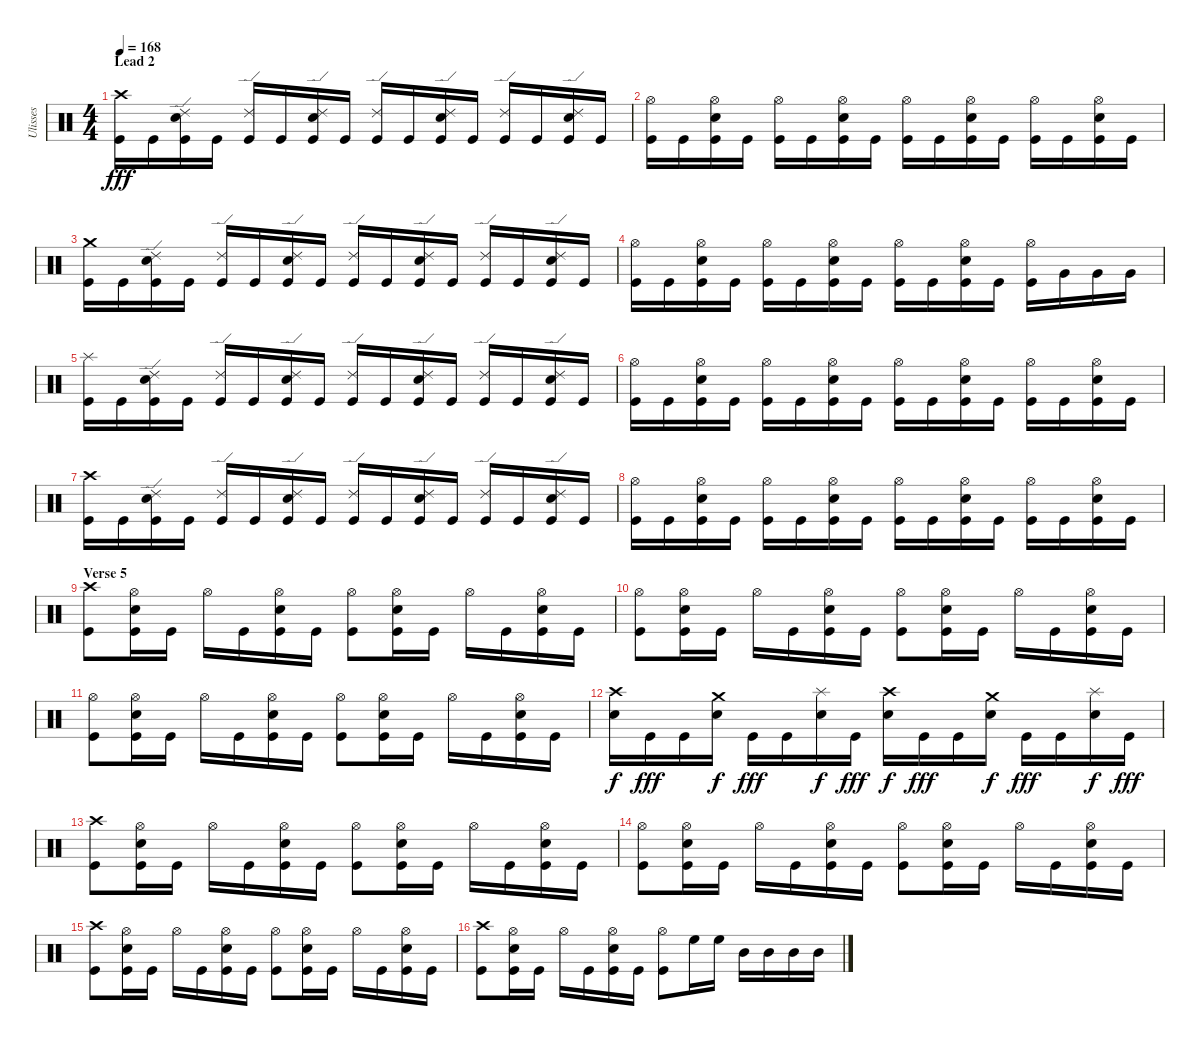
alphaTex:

\track ("Ulisses" "Ulisses") {instrument percussion}
\staff {score}
\articulation defaults
\ts (4 4)
\section ("" "Lead 2")
\tempo 168
\clef neutral
\ks c
("Crash high (hit)" "Kick (hit)").16{dy fff} "Kick (hit)".16 ("Ride (edge) 2" "Snare (hit) 2" "Kick (hit)").16 "Kick (hit)".16 ("Ride (edge) 2" "Kick (hit)").16 "Kick (hit)".16 ("Ride (edge) 2" "Snare (hit) 2" "Kick (hit)").16 "Kick (hit)".16 ("Ride (edge) 2" "Kick (hit)").16 "Kick (hit)".16 ("Ride (edge) 2" "Snare (hit) 2" "Kick (hit)").16 "Kick (hit)".16 ("Ride (edge) 2" "Kick (hit)").16 "Kick (hit)".16 ("Ride (edge) 2" "Snare (hit) 2" "Kick (hit)").16 "Kick (hit)".16 |
("Hi-Hat (open)" "Kick (hit)").16 "Kick (hit)".16 ("Hi-Hat (open)" "Snare (hit) 2" "Kick (hit)").16 "Kick (hit)".16 ("Hi-Hat (open)" "Kick (hit)").16 "Kick (hit)".16 ("Hi-Hat (open)" "Snare (hit) 2" "Kick (hit)").16 "Kick (hit)".16 ("Hi-Hat (open)" "Kick (hit)").16 "Kick (hit)".16 ("Hi-Hat (open)" "Snare (hit) 2" "Kick (hit)").16 "Kick (hit)".16 ("Hi-Hat (open)" "Kick (hit)").16 "Kick (hit)".16 ("Hi-Hat (open)" "Snare (hit) 2" "Kick (hit)").16 "Kick (hit)".16 |
("Crash medium (hit)" "Kick (hit)").16 "Kick (hit)".16 ("Ride (edge) 2" "Snare (hit) 2" "Kick (hit)").16 "Kick (hit)".16 ("Ride (edge) 2" "Kick (hit)").16 "Kick (hit)".16 ("Ride (edge) 2" "Snare (hit) 2" "Kick (hit)").16 "Kick (hit)".16 ("Ride (edge) 2" "Kick (hit)").16 "Kick (hit)".16 ("Ride (edge) 2" "Snare (hit) 2" "Kick (hit)").16 "Kick (hit)".16 ("Ride (edge) 2" "Kick (hit)").16 "Kick (hit)".16 ("Ride (edge) 2" "Snare (hit) 2" "Kick (hit)").16 "Kick (hit)".16 |
("Hi-Hat (open)" "Kick (hit)").16 "Kick (hit)".16 ("Hi-Hat (open)" "Snare (hit) 2" "Kick (hit)").16 "Kick (hit)".16 ("Hi-Hat (open)" "Kick (hit)").16 "Kick (hit)".16 ("Hi-Hat (open)" "Snare (hit) 2" "Kick (hit)").16 "Kick (hit)".16 ("Hi-Hat (open)" "Kick (hit)").16 "Kick (hit)".16 ("Hi-Hat (open)" "Snare (hit) 2" "Kick (hit)").16 "Kick (hit)".16 ("Hi-Hat (open)" "Kick (hit)").16 "Very Low Tom (hit)".16 "Very Low Tom (hit)".16 "Very Low Tom (hit)".16 |
("Splash (hit)" "Kick (hit)").16 "Kick (hit)".16 ("Ride (edge) 2" "Snare (hit) 2" "Kick (hit)").16 "Kick (hit)".16 ("Ride (edge) 2" "Kick (hit)").16 "Kick (hit)".16 ("Ride (edge) 2" "Snare (hit) 2" "Kick (hit)").16 "Kick (hit)".16 ("Ride (edge) 2" "Kick (hit)").16 "Kick (hit)".16 ("Ride (edge) 2" "Snare (hit) 2" "Kick (hit)").16 "Kick (hit)".16 ("Ride (edge) 2" "Kick (hit)").16 "Kick (hit)".16 ("Ride (edge) 2" "Snare (hit) 2" "Kick (hit)").16 "Kick (hit)".16 |
("Hi-Hat (open)" "Kick (hit)").16 "Kick (hit)".16 ("Hi-Hat (open)" "Snare (hit) 2" "Kick (hit)").16 "Kick (hit)".16 ("Hi-Hat (open)" "Kick (hit)").16 "Kick (hit)".16 ("Hi-Hat (open)" "Snare (hit) 2" "Kick (hit)").16 "Kick (hit)".16 ("Hi-Hat (open)" "Kick (hit)").16 "Kick (hit)".16 ("Hi-Hat (open)" "Snare (hit) 2" "Kick (hit)").16 "Kick (hit)".16 ("Hi-Hat (open)" "Kick (hit)").16 "Kick (hit)".16 ("Hi-Hat (open)" "Snare (hit) 2" "Kick (hit)").16 "Kick (hit)".16 |
("Crash high (hit)" "Kick (hit)").16 "Kick (hit)".16 ("Ride (edge) 2" "Snare (hit) 2" "Kick (hit)").16 "Kick (hit)".16 ("Ride (edge) 2" "Kick (hit)").16 "Kick (hit)".16 ("Ride (edge) 2" "Snare (hit) 2" "Kick (hit)").16 "Kick (hit)".16 ("Ride (edge) 2" "Kick (hit)").16 "Kick (hit)".16 ("Ride (edge) 2" "Snare (hit) 2" "Kick (hit)").16 "Kick (hit)".16 ("Ride (edge) 2" "Kick (hit)").16 "Kick (hit)".16 ("Ride (edge) 2" "Snare (hit) 2" "Kick (hit)").16 "Kick (hit)".16 |
("Hi-Hat (open)" "Kick (hit)").16 "Kick (hit)".16 ("Hi-Hat (open)" "Snare (hit) 2" "Kick (hit)").16 "Kick (hit)".16 ("Hi-Hat (open)" "Kick (hit)").16 "Kick (hit)".16 ("Hi-Hat (open)" "Snare (hit) 2" "Kick (hit)").16 "Kick (hit)".16 ("Hi-Hat (open)" "Kick (hit)").16 "Kick (hit)".16 ("Hi-Hat (open)" "Snare (hit) 2" "Kick (hit)").16 "Kick (hit)".16 ("Hi-Hat (open)" "Kick (hit)").16 "Kick (hit)".16 ("Hi-Hat (open)" "Snare (hit) 2" "Kick (hit)").16 "Kick (hit)".16 |
\section ("" "Verse 5")
("Crash high (hit)" "Kick (hit)").8 ("Hi-Hat (open)" "Snare (hit) 2" "Kick (hit)").16 "Kick (hit)".16 "Hi-Hat (open)".16 "Kick (hit)".16 ("Hi-Hat (open)" "Snare (hit) 2" "Kick (hit)").16 "Kick (hit)".16 ("Hi-Hat (open)" "Kick (hit)").8 ("Hi-Hat (open)" "Snare (hit) 2" "Kick (hit)").16 "Kick (hit)".16 "Hi-Hat (open)".16 "Kick (hit)".16 ("Hi-Hat (open)" "Snare (hit) 2" "Kick (hit)").16 "Kick (hit)".16 |
("Hi-Hat (open)" "Kick (hit)").8 ("Hi-Hat (open)" "Snare (hit) 2" "Kick (hit)").16 "Kick (hit)".16 "Hi-Hat (open)".16 "Kick (hit)".16 ("Hi-Hat (open)" "Snare (hit) 2" "Kick (hit)").16 "Kick (hit)".16 ("Hi-Hat (open)" "Kick (hit)").8 ("Hi-Hat (open)" "Snare (hit) 2" "Kick (hit)").16 "Kick (hit)".16 "Hi-Hat (open)".16 "Kick (hit)".16 ("Hi-Hat (open)" "Snare (hit) 2" "Kick (hit)").16 "Kick (hit)".16 |
("Hi-Hat (open)" "Kick (hit)").8 ("Hi-Hat (open)" "Snare (hit) 2" "Kick (hit)").16 "Kick (hit)".16 "Hi-Hat (open)".16 "Kick (hit)".16 ("Hi-Hat (open)" "Snare (hit) 2" "Kick (hit)").16 "Kick (hit)".16 ("Hi-Hat (open)" "Kick (hit)").8 ("Hi-Hat (open)" "Snare (hit) 2" "Kick (hit)").16 "Kick (hit)".16 "Hi-Hat (open)".16 "Kick (hit)".16 ("Hi-Hat (open)" "Snare (hit) 2" "Kick (hit)").16 "Kick (hit)".16 |
("Crash high (hit)" "Snare (hit) 2").16{dy f} "Kick (hit)".16{dy fff} "Kick (hit)".16 ("Crash medium (hit)" "Snare (hit) 2").16{dy f} "Kick (hit)".16{dy fff} "Kick (hit)".16 ("Splash (hit)" "Snare (hit) 2").16{dy f} "Kick (hit)".16{dy fff} ("Crash high (hit)" "Snare (hit) 2").16{dy f} "Kick (hit)".16{dy fff} "Kick (hit)".16 ("Crash medium (hit)" "Snare (hit) 2").16{dy f} "Kick (hit)".16{dy fff} "Kick (hit)".16 ("Splash (hit)" "Snare (hit) 2").16{dy f} "Kick (hit)".16{dy fff} |
("Crash high (hit)" "Kick (hit)").8 ("Hi-Hat (open)" "Snare (hit) 2" "Kick (hit)").16 "Kick (hit)".16 "Hi-Hat (open)".16 "Kick (hit)".16 ("Hi-Hat (open)" "Snare (hit) 2" "Kick (hit)").16 "Kick (hit)".16 ("Hi-Hat (open)" "Kick (hit)").8 ("Hi-Hat (open)" "Snare (hit) 2" "Kick (hit)").16 "Kick (hit)".16 "Hi-Hat (open)".16 "Kick (hit)".16 ("Hi-Hat (open)" "Snare (hit) 2" "Kick (hit)").16 "Kick (hit)".16 |
("Hi-Hat (open)" "Kick (hit)").8 ("Hi-Hat (open)" "Snare (hit) 2" "Kick (hit)").16 "Kick (hit)".16 "Hi-Hat (open)".16 "Kick (hit)".16 ("Hi-Hat (open)" "Snare (hit) 2" "Kick (hit)").16 "Kick (hit)".16 ("Hi-Hat (open)" "Kick (hit)").8 ("Hi-Hat (open)" "Snare (hit) 2" "Kick (hit)").16 "Kick (hit)".16 "Hi-Hat (open)".16 "Kick (hit)".16 ("Hi-Hat (open)" "Snare (hit) 2" "Kick (hit)").16 "Kick (hit)".16 |
("Crash high (hit)" "Kick (hit)").8 ("Hi-Hat (open)" "Snare (hit) 2" "Kick (hit)").16 "Kick (hit)".16 "Hi-Hat (open)".16 "Kick (hit)".16 ("Hi-Hat (open)" "Snare (hit) 2" "Kick (hit)").16 "Kick (hit)".16 ("Hi-Hat (open)" "Kick (hit)").8 ("Hi-Hat (open)" "Snare (hit) 2" "Kick (hit)").16 "Kick (hit)".16 "Hi-Hat (open)".16 "Kick (hit)".16 ("Hi-Hat (open)" "Snare (hit) 2" "Kick (hit)").16 "Kick (hit)".16 |
("Crash high (hit)" "Kick (hit)").8 ("Hi-Hat (open)" "Snare (hit) 2" "Kick (hit)").16 "Kick (hit)".16 "Hi-Hat (open)".16 "Kick (hit)".16 ("Hi-Hat (open)" "Snare (hit) 2" "Kick (hit)").16 "Kick (hit)".16 ("Hi-Hat (open)" "Kick (hit)").8 "High Floor Tom (hit)".16 "High Floor Tom (hit)".16 "Mid Tom (hit)".16 "Mid Tom (hit)".16 "Mid Tom (hit)".16 "Mid Tom (hit)".16
